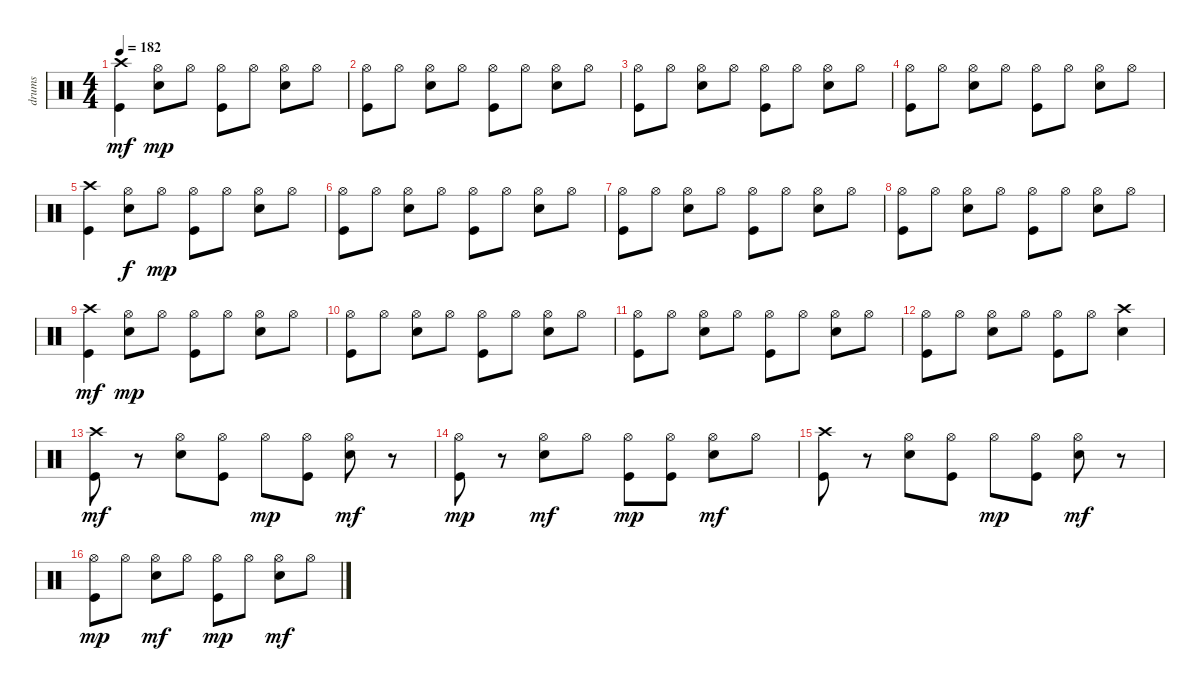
\track ("drums" "drums") {instrument percussion}
\staff {score}
\articulation defaults
\ts (4 4)
\tempo 182
\clef neutral
\ks c
("Kick (hit)" "Crash high (hit)").4{dy mf} ("Snare (hit) 2" "Hi-Hat (open)").8{dy mp} "Hi-Hat (open)".8 ("Kick (hit)" "Hi-Hat (open)").8 "Hi-Hat (open)".8 ("Snare (hit) 2" "Hi-Hat (open)").8 "Hi-Hat (open)".8 |
("Kick (hit)" "Hi-Hat (open)").8 "Hi-Hat (open)".8 ("Snare (hit) 2" "Hi-Hat (open)").8 "Hi-Hat (open)".8 ("Kick (hit)" "Hi-Hat (open)").8 "Hi-Hat (open)".8 ("Snare (hit) 2" "Hi-Hat (open)").8 "Hi-Hat (open)".8 |
("Kick (hit)" "Hi-Hat (open)").8 "Hi-Hat (open)".8 ("Snare (hit) 2" "Hi-Hat (open)").8 "Hi-Hat (open)".8 ("Kick (hit)" "Hi-Hat (open)").8 "Hi-Hat (open)".8 ("Snare (hit) 2" "Hi-Hat (open)").8 "Hi-Hat (open)".8 |
("Kick (hit)" "Hi-Hat (open)").8 "Hi-Hat (open)".8 ("Snare (hit) 2" "Hi-Hat (open)").8 "Hi-Hat (open)".8 ("Kick (hit)" "Hi-Hat (open)").8 "Hi-Hat (open)".8 ("Snare (hit) 2" "Hi-Hat (open)").8 "Hi-Hat (open)".8 |
("Kick (hit)" "Crash high (hit)").4 ("Snare (hit) 2" "Hi-Hat (open)").8{dy f} "Hi-Hat (open)".8{dy mp} ("Kick (hit)" "Hi-Hat (open)").8 "Hi-Hat (open)".8 ("Snare (hit) 2" "Hi-Hat (open)").8 "Hi-Hat (open)".8 |
("Kick (hit)" "Hi-Hat (open)").8 "Hi-Hat (open)".8 ("Snare (hit) 2" "Hi-Hat (open)").8 "Hi-Hat (open)".8 ("Kick (hit)" "Hi-Hat (open)").8 "Hi-Hat (open)".8 ("Snare (hit) 2" "Hi-Hat (open)").8 "Hi-Hat (open)".8 |
("Kick (hit)" "Hi-Hat (open)").8 "Hi-Hat (open)".8 ("Snare (hit) 2" "Hi-Hat (open)").8 "Hi-Hat (open)".8 ("Kick (hit)" "Hi-Hat (open)").8 "Hi-Hat (open)".8 ("Snare (hit) 2" "Hi-Hat (open)").8 "Hi-Hat (open)".8 |
("Kick (hit)" "Hi-Hat (open)").8 "Hi-Hat (open)".8 ("Snare (hit) 2" "Hi-Hat (open)").8 "Hi-Hat (open)".8 ("Kick (hit)" "Hi-Hat (open)").8 "Hi-Hat (open)".8 ("Snare (hit) 2" "Hi-Hat (open)").8 "Hi-Hat (open)".8 |
("Kick (hit)" "Crash high (hit)").4{dy mf} ("Snare (hit) 2" "Hi-Hat (open)").8{dy mp} "Hi-Hat (open)".8 ("Kick (hit)" "Hi-Hat (open)").8 "Hi-Hat (open)".8 ("Snare (hit) 2" "Hi-Hat (open)").8 "Hi-Hat (open)".8 |
("Kick (hit)" "Hi-Hat (open)").8 "Hi-Hat (open)".8 ("Snare (hit) 2" "Hi-Hat (open)").8 "Hi-Hat (open)".8 ("Kick (hit)" "Hi-Hat (open)").8 "Hi-Hat (open)".8 ("Snare (hit) 2" "Hi-Hat (open)").8 "Hi-Hat (open)".8 |
("Kick (hit)" "Hi-Hat (open)").8 "Hi-Hat (open)".8 ("Snare (hit) 2" "Hi-Hat (open)").8 "Hi-Hat (open)".8 ("Kick (hit)" "Hi-Hat (open)").8 "Hi-Hat (open)".8 ("Snare (hit) 2" "Hi-Hat (open)").8 "Hi-Hat (open)".8 |
("Kick (hit)" "Hi-Hat (open)").8 "Hi-Hat (open)".8 ("Snare (hit) 2" "Hi-Hat (open)").8 "Hi-Hat (open)".8 ("Kick (hit)" "Hi-Hat (open)").8 "Hi-Hat (open)".8 ("Snare (hit) 2" "Crash high (hit)").4 |
("Kick (hit)" "Crash high (hit)").8{dy mf} r.8 ("Snare (hit) 2" "Hi-Hat (open)").8 ("Kick (hit)" "Hi-Hat (open)").8 "Hi-Hat (open)".8{dy mp} ("Kick (hit)" "Hi-Hat (open)").8 ("Snare (hit) 2" "Hi-Hat (open)").8{dy mf} r.8 |
("Kick (hit)" "Hi-Hat (open)").8{dy mp} r.8 ("Snare (hit) 2" "Hi-Hat (open)").8{dy mf} "Hi-Hat (open)".8 ("Kick (hit)" "Hi-Hat (open)").8{dy mp} ("Kick (hit)" "Hi-Hat (open)").8 ("Snare (hit) 2" "Hi-Hat (open)").8{dy mf} "Hi-Hat (open)".8 |
("Kick (hit)" "Crash high (hit)").8 r.8 ("Snare (hit) 2" "Hi-Hat (open)").8 ("Kick (hit)" "Hi-Hat (open)").8 "Hi-Hat (open)".8{dy mp} ("Kick (hit)" "Hi-Hat (open)").8 ("Snare (hit) 2" "Hi-Hat (open)").8{dy mf} r.8 |
("Kick (hit)" "Hi-Hat (open)").8{dy mp} "Hi-Hat (open)".8 ("Snare (hit) 2" "Hi-Hat (open)").8{dy mf} "Hi-Hat (open)".8 ("Kick (hit)" "Hi-Hat (open)").8{dy mp} "Hi-Hat (open)".8 ("Snare (hit) 2" "Hi-Hat (open)").8{dy mf} "Hi-Hat (open)".8
